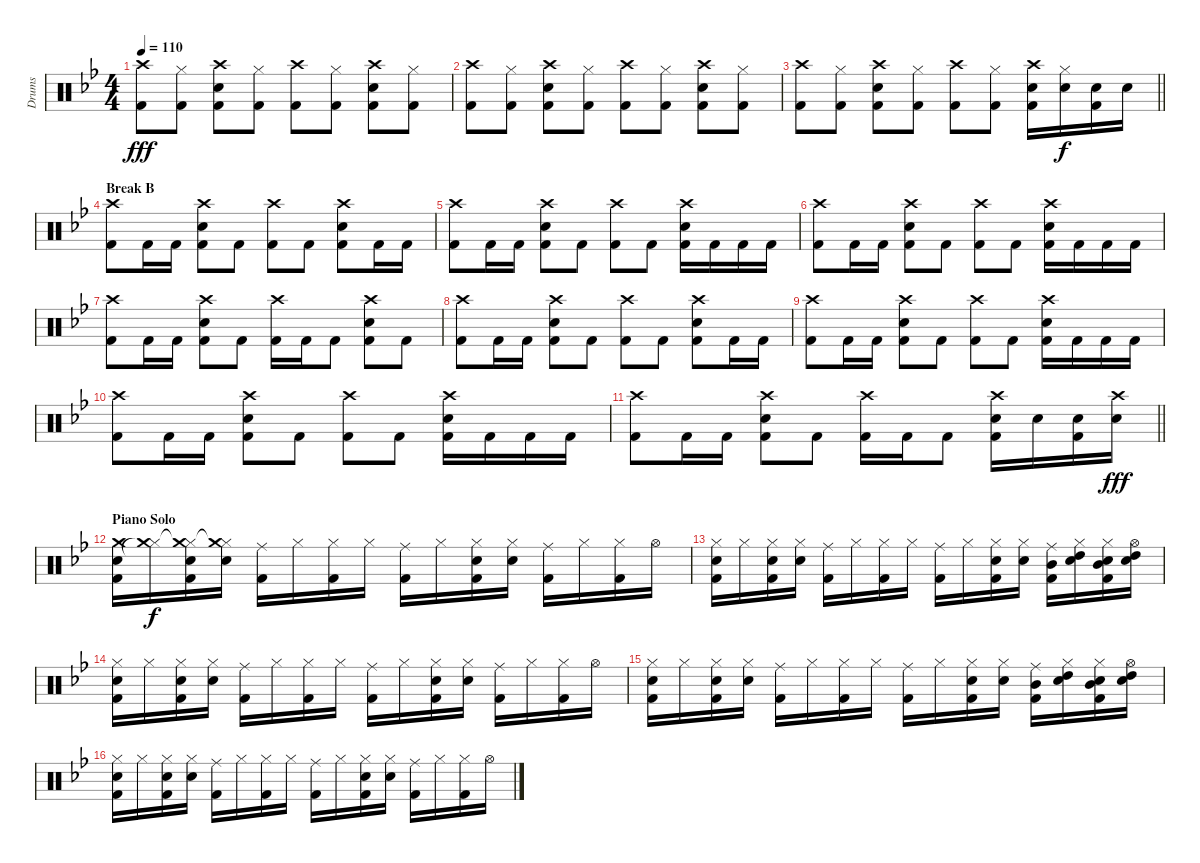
\track ("Drums" "Drums") {instrument percussion}
\staff {score}
\articulation defaults
\ts (4 4)
\tempo 110
\clef neutral
\ks bb
("Crash high (hit)" "Kick (hit) 2").8{dy fff} ("Hi-Hat (closed)" "Kick (hit) 2").8 ("Crash high (hit)" "Electric Snare (hit)" "Kick (hit) 2").8 ("Hi-Hat (closed)" "Kick (hit) 2").8 ("Crash high (hit)" "Kick (hit) 2").8 ("Hi-Hat (closed)" "Kick (hit) 2").8 ("Crash high (hit)" "Electric Snare (hit)" "Kick (hit) 2").8 ("Hi-Hat (closed)" "Kick (hit) 2").8 |
("Crash high (hit)" "Kick (hit) 2").8 ("Hi-Hat (closed)" "Kick (hit) 2").8 ("Crash high (hit)" "Electric Snare (hit)" "Kick (hit) 2").8 ("Hi-Hat (closed)" "Kick (hit) 2").8 ("Crash high (hit)" "Kick (hit) 2").8 ("Hi-Hat (closed)" "Kick (hit) 2").8 ("Crash high (hit)" "Electric Snare (hit)" "Kick (hit) 2").8 ("Hi-Hat (closed)" "Kick (hit) 2").8 |
\barLineRight lightlight
("Crash high (hit)" "Kick (hit) 2").8 ("Hi-Hat (closed)" "Kick (hit) 2").8 ("Crash high (hit)" "Electric Snare (hit)" "Kick (hit) 2").8 ("Hi-Hat (closed)" "Kick (hit) 2").8 ("Crash high (hit)" "Kick (hit) 2").8 ("Hi-Hat (closed)" "Kick (hit) 2").8 ("Crash high (hit)" "Electric Snare (hit)" "Kick (hit) 2").16 ("Hi-Hat (closed)" "Electric Snare (hit)").16{dy f} ("Electric Snare (hit)" "Kick (hit) 2").16 "Electric Snare (hit)".16 |
\section ("" "Break B")
("Crash high (hit)" "Kick (hit) 2").8 "Kick (hit) 2".16 "Kick (hit) 2".16 ("Crash high (hit)" "Electric Snare (hit)" "Kick (hit) 2").8 "Kick (hit) 2".8 ("Crash high (hit)" "Kick (hit) 2").8 "Kick (hit) 2".8 ("Crash high (hit)" "Electric Snare (hit)" "Kick (hit) 2").8 "Kick (hit) 2".16 "Kick (hit) 2".16 |
("Crash high (hit)" "Kick (hit) 2").8 "Kick (hit) 2".16 "Kick (hit) 2".16 ("Crash high (hit)" "Electric Snare (hit)" "Kick (hit) 2").8 "Kick (hit) 2".8 ("Crash high (hit)" "Kick (hit) 2").8 "Kick (hit) 2".8 ("Crash high (hit)" "Electric Snare (hit)" "Kick (hit) 2").16 "Kick (hit) 2".16 "Kick (hit) 2".16 "Kick (hit) 2".16 |
("Crash high (hit)" "Kick (hit) 2").8 "Kick (hit) 2".16 "Kick (hit) 2".16 ("Crash high (hit)" "Electric Snare (hit)" "Kick (hit) 2").8 "Kick (hit) 2".8 ("Crash high (hit)" "Kick (hit) 2").8 "Kick (hit) 2".8 ("Crash high (hit)" "Electric Snare (hit)" "Kick (hit) 2").16 "Kick (hit) 2".16 "Kick (hit) 2".16 "Kick (hit) 2".16 |
("Crash high (hit)" "Kick (hit) 2").8 "Kick (hit) 2".16 "Kick (hit) 2".16 ("Crash high (hit)" "Electric Snare (hit)" "Kick (hit) 2").8 "Kick (hit) 2".8 ("Crash high (hit)" "Kick (hit) 2").16 "Kick (hit) 2".16 "Kick (hit) 2".8 ("Crash high (hit)" "Electric Snare (hit)" "Kick (hit) 2").8 "Kick (hit) 2".8 |
("Crash high (hit)" "Kick (hit) 2").8 "Kick (hit) 2".16 "Kick (hit) 2".16 ("Crash high (hit)" "Electric Snare (hit)" "Kick (hit) 2").8 "Kick (hit) 2".8 ("Crash high (hit)" "Kick (hit) 2").8 "Kick (hit) 2".8 ("Crash high (hit)" "Electric Snare (hit)" "Kick (hit) 2").8 "Kick (hit) 2".16 "Kick (hit) 2".16 |
("Crash high (hit)" "Kick (hit) 2").8 "Kick (hit) 2".16 "Kick (hit) 2".16 ("Crash high (hit)" "Electric Snare (hit)" "Kick (hit) 2").8 "Kick (hit) 2".8 ("Crash high (hit)" "Kick (hit) 2").8 "Kick (hit) 2".8 ("Crash high (hit)" "Electric Snare (hit)" "Kick (hit) 2").16 "Kick (hit) 2".16 "Kick (hit) 2".16 "Kick (hit) 2".16 |
("Crash high (hit)" "Kick (hit) 2").8 "Kick (hit) 2".16 "Kick (hit) 2".16 ("Crash high (hit)" "Electric Snare (hit)" "Kick (hit) 2").8 "Kick (hit) 2".8 ("Crash high (hit)" "Kick (hit) 2").8 "Kick (hit) 2".8 ("Crash high (hit)" "Electric Snare (hit)" "Kick (hit) 2").16 "Kick (hit) 2".16 "Kick (hit) 2".16 "Kick (hit) 2".16 |
\barLineRight lightlight
("Crash high (hit)" "Kick (hit) 2").8 "Kick (hit) 2".16 "Kick (hit) 2".16 ("Crash high (hit)" "Electric Snare (hit)" "Kick (hit) 2").8 "Kick (hit) 2".8 ("Crash high (hit)" "Kick (hit) 2").16 "Kick (hit) 2".16 "Kick (hit) 2".8 ("Crash high (hit)" "Electric Snare (hit)" "Kick (hit) 2").16 "Electric Snare (hit)".16 ("Electric Snare (hit)" "Kick (hit) 2").16 ("Crash high (hit)" "Electric Snare (hit)").16{dy fff} |
\section ("" "Piano Solo")
("Crash medium (hit)" "Electric Snare (hit)" "Kick (hit) 2").16 ("Hi-Hat (closed)" "Crash medium (hit)"{t}).16{dy f} ("Hi-Hat (closed)" "Crash medium (hit)"{t} "Electric Snare (hit)" "Kick (hit) 2").16 ("Hi-Hat (closed)" "Crash medium (hit)"{t} "Electric Snare (hit)").16 ("Ride (middle)" "Kick (hit) 2").16 "Hi-Hat (closed)".16 ("Hi-Hat (closed)" "Kick (hit) 2").16 "Hi-Hat (closed)".16 ("Ride (middle)" "Kick (hit) 2").16 "Hi-Hat (closed)".16 ("Hi-Hat (closed)" "Electric Snare (hit)" "Kick (hit) 2").16 ("Hi-Hat (closed)" "Electric Snare (hit)").16 ("Ride (middle)" "Kick (hit) 2").16 "Hi-Hat (closed)".16 ("Hi-Hat (closed)" "Kick (hit) 2").16 "Hi-Hat (open)".16 |
("Hi-Hat (closed)" "Electric Snare (hit)" "Kick (hit) 2").16 "Hi-Hat (closed)".16 ("Hi-Hat (closed)" "Electric Snare (hit)" "Kick (hit) 2").16 ("Hi-Hat (closed)" "Electric Snare (hit)").16 ("Ride (middle)" "Kick (hit) 2").16 "Hi-Hat (closed)".16 ("Hi-Hat (closed)" "Kick (hit) 2").16 "Hi-Hat (closed)".16 ("Ride (middle)" "Kick (hit) 2").16 "Hi-Hat (closed)".16 ("Hi-Hat (closed)" "Electric Snare (hit)" "Kick (hit) 2").16 ("Hi-Hat (closed)" "Electric Snare (hit)").16 ("Ride (middle)" "Mid Tom (hit)" "Kick (hit) 2").16 ("Hi-Hat (closed)" "Electric Snare (hit)" "High Tom (hit)").16 ("Hi-Hat (closed)" "Electric Snare (hit)" "Mid Tom (hit)" "Kick (hit) 2").16 ("Hi-Hat (open)" "Electric Snare (hit)" "High Tom (hit)").16 |
("Hi-Hat (closed)" "Electric Snare (hit)" "Kick (hit) 2").16 "Hi-Hat (closed)".16 ("Hi-Hat (closed)" "Electric Snare (hit)" "Kick (hit) 2").16 ("Hi-Hat (closed)" "Electric Snare (hit)").16 ("Ride (middle)" "Kick (hit) 2").16 "Hi-Hat (closed)".16 ("Hi-Hat (closed)" "Kick (hit) 2").16 "Hi-Hat (closed)".16 ("Ride (middle)" "Kick (hit) 2").16 "Hi-Hat (closed)".16 ("Hi-Hat (closed)" "Electric Snare (hit)" "Kick (hit) 2").16 ("Hi-Hat (closed)" "Electric Snare (hit)").16 ("Ride (middle)" "Kick (hit) 2").16 "Hi-Hat (closed)".16 ("Hi-Hat (closed)" "Kick (hit) 2").16 "Hi-Hat (open)".16 |
("Hi-Hat (closed)" "Electric Snare (hit)" "Kick (hit) 2").16 "Hi-Hat (closed)".16 ("Hi-Hat (closed)" "Electric Snare (hit)" "Kick (hit) 2").16 ("Hi-Hat (closed)" "Electric Snare (hit)").16 ("Ride (middle)" "Kick (hit) 2").16 "Hi-Hat (closed)".16 ("Hi-Hat (closed)" "Kick (hit) 2").16 "Hi-Hat (closed)".16 ("Ride (middle)" "Kick (hit) 2").16 "Hi-Hat (closed)".16 ("Hi-Hat (closed)" "Electric Snare (hit)" "Kick (hit) 2").16 ("Hi-Hat (closed)" "Electric Snare (hit)").16 ("Ride (middle)" "Mid Tom (hit)" "Kick (hit) 2").16 ("Hi-Hat (closed)" "Electric Snare (hit)" "High Tom (hit)").16 ("Hi-Hat (closed)" "Electric Snare (hit)" "Mid Tom (hit)" "Kick (hit) 2").16 ("Hi-Hat (open)" "Electric Snare (hit)" "High Tom (hit)").16 |
("Hi-Hat (closed)" "Electric Snare (hit)" "Kick (hit) 2").16 "Hi-Hat (closed)".16 ("Hi-Hat (closed)" "Electric Snare (hit)" "Kick (hit) 2").16 ("Hi-Hat (closed)" "Electric Snare (hit)").16 ("Ride (middle)" "Kick (hit) 2").16 "Hi-Hat (closed)".16 ("Hi-Hat (closed)" "Kick (hit) 2").16 "Hi-Hat (closed)".16 ("Ride (middle)" "Kick (hit) 2").16 "Hi-Hat (closed)".16 ("Hi-Hat (closed)" "Electric Snare (hit)" "Kick (hit) 2").16 ("Hi-Hat (closed)" "Electric Snare (hit)").16 ("Ride (middle)" "Kick (hit) 2").16 "Hi-Hat (closed)".16 ("Hi-Hat (closed)" "Kick (hit) 2").16 "Hi-Hat (open)".16
